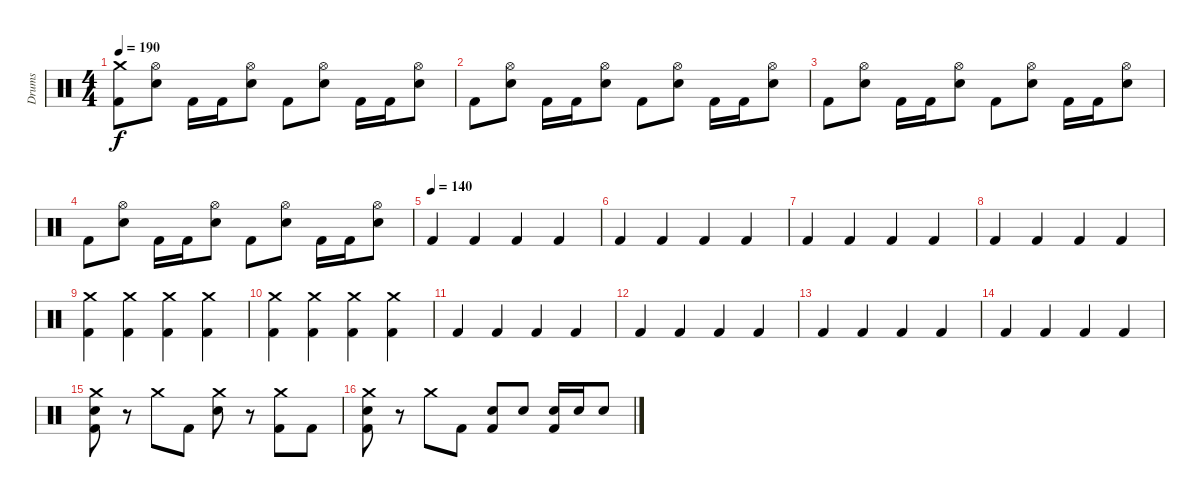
\track ("Drums" "Drums") {instrument percussion}
\staff {score}
\articulation defaults
\ts (4 4)
\tempo 190
\clef neutral
\ks c
("Crash medium (hit)" "Kick (hit) 2").8{dy f} ("Hi-Hat (open)" "Electric Snare (hit)").8 "Kick (hit) 2".16 "Kick (hit) 2".16 ("Hi-Hat (open)" "Electric Snare (hit)").8 "Kick (hit) 2".8 ("Hi-Hat (open)" "Electric Snare (hit)").8 "Kick (hit) 2".16 "Kick (hit) 2".16 ("Hi-Hat (open)" "Electric Snare (hit)").8 |
"Kick (hit) 2".8 ("Hi-Hat (open)" "Electric Snare (hit)").8 "Kick (hit) 2".16 "Kick (hit) 2".16 ("Hi-Hat (open)" "Electric Snare (hit)").8 "Kick (hit) 2".8 ("Hi-Hat (open)" "Electric Snare (hit)").8 "Kick (hit) 2".16 "Kick (hit) 2".16 ("Hi-Hat (open)" "Electric Snare (hit)").8 |
"Kick (hit) 2".8 ("Hi-Hat (open)" "Electric Snare (hit)").8 "Kick (hit) 2".16 "Kick (hit) 2".16 ("Hi-Hat (open)" "Electric Snare (hit)").8 "Kick (hit) 2".8 ("Hi-Hat (open)" "Electric Snare (hit)").8 "Kick (hit) 2".16 "Kick (hit) 2".16 ("Hi-Hat (open)" "Electric Snare (hit)").8 |
"Kick (hit) 2".8 ("Hi-Hat (open)" "Electric Snare (hit)").8 "Kick (hit) 2".16 "Kick (hit) 2".16 ("Hi-Hat (open)" "Electric Snare (hit)").8 "Kick (hit) 2".8 ("Hi-Hat (open)" "Electric Snare (hit)").8 "Kick (hit) 2".16 "Kick (hit) 2".16 ("Hi-Hat (open)" "Electric Snare (hit)").8 |
\tempo (140)
"Kick (hit) 2".4 "Kick (hit) 2".4 "Kick (hit) 2".4 "Kick (hit) 2".4 |
"Kick (hit) 2".4 "Kick (hit) 2".4 "Kick (hit) 2".4 "Kick (hit) 2".4 |
"Kick (hit) 2".4 "Kick (hit) 2".4 "Kick (hit) 2".4 "Kick (hit) 2".4 |
"Kick (hit) 2".4 "Kick (hit) 2".4 "Kick (hit) 2".4 "Kick (hit) 2".4 |
("Crash medium (hit)" "Kick (hit) 2").4 ("Crash medium (hit)" "Kick (hit) 2").4 ("Crash medium (hit)" "Kick (hit) 2").4 ("Crash medium (hit)" "Kick (hit) 2").4 |
("Crash medium (hit)" "Kick (hit) 2").4 ("Crash medium (hit)" "Kick (hit) 2").4 ("Crash medium (hit)" "Kick (hit) 2").4 ("Crash medium (hit)" "Kick (hit) 2").4 |
"Kick (hit) 2".4 "Kick (hit) 2".4 "Kick (hit) 2".4 "Kick (hit) 2".4 |
"Kick (hit) 2".4 "Kick (hit) 2".4 "Kick (hit) 2".4 "Kick (hit) 2".4 |
"Kick (hit) 2".4 "Kick (hit) 2".4 "Kick (hit) 2".4 "Kick (hit) 2".4 |
"Kick (hit) 2".4 "Kick (hit) 2".4 "Kick (hit) 2".4 "Kick (hit) 2".4 |
("Crash medium (hit)" "Electric Snare (hit)" "Kick (hit) 2").8 r.8 "Crash medium (hit)".8 "Kick (hit) 2".8 ("Crash medium (hit)" "Electric Snare (hit)").8 r.8 ("Crash medium (hit)" "Kick (hit) 2").8 "Kick (hit) 2".8 |
("Crash medium (hit)" "Electric Snare (hit)" "Kick (hit) 2").8 r.8 "Crash medium (hit)".8 "Kick (hit) 2".8 ("Electric Snare (hit)" "Kick (hit) 2").8 "Electric Snare (hit)".8 ("Electric Snare (hit)" "Kick (hit) 2").16 "Electric Snare (hit)".16 "Electric Snare (hit)".8
